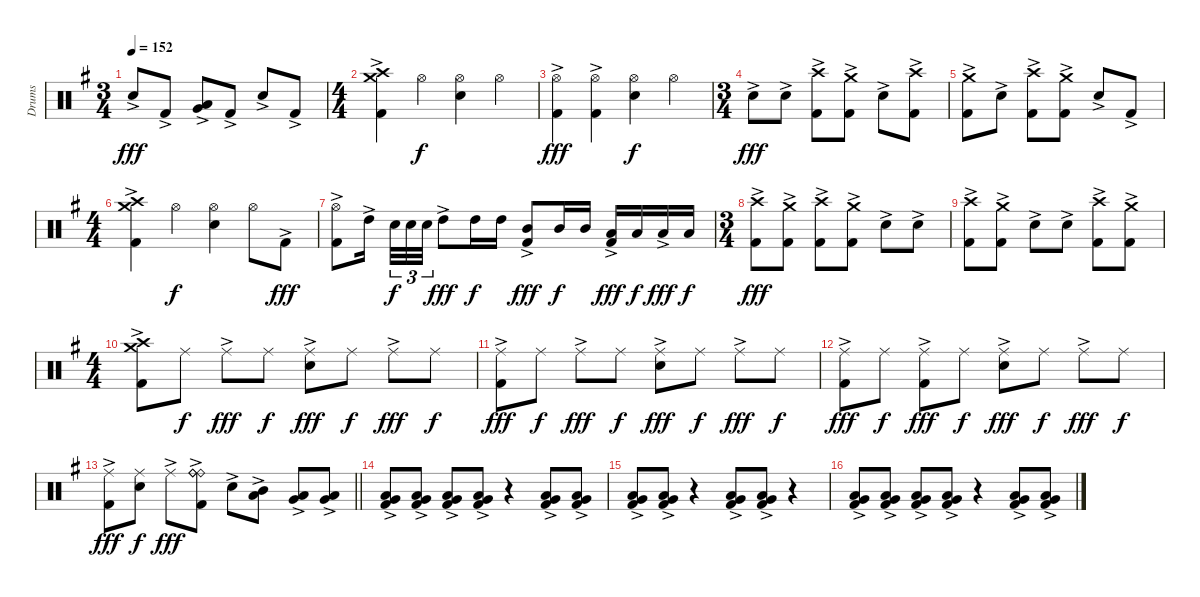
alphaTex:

\track ("Drums" "Drums") {instrument percussion}
\staff {score}
\articulation defaults
\ts (3 4)
\tempo 152
\clef neutral
\ks eminor "Snare (hit) 2"{ac}.8{dy fff} "Kick (hit) 2"{ac}.8
("Low Tom (hit)"{ac} "Very Low Tom (hit)").8 "Kick (hit) 2"{ac}.8 "Snare (hit) 2"{ac}.8 "Kick (hit) 2"{ac}.8 |
\ts (4 4)
("Crash high (hit)" "Crash medium (hit)" "Kick (hit) 2"{ac}).4 "Hi-Hat (open)".4{dy f} ("Hi-Hat (open)" "Snare (hit) 2").4 "Hi-Hat (open)".4 |
("Hi-Hat (open)" "Kick (hit) 2"{ac}).4{dy fff} ("Hi-Hat (open)" "Kick (hit) 2"{ac}).4 ("Hi-Hat (open)" "Snare (hit) 2").4{dy f} "Hi-Hat (open)".4 |
\ts (3 4)
"Snare (hit) 2"{ac}.8{dy fff} "Snare (hit) 2"{ac}.8 ("Crash high (hit)" "Kick (hit) 2"{ac}).8 ("Crash medium (hit)" "Kick (hit) 2"{ac}).8 "Snare (hit) 2"{ac}.8 ("Crash high (hit)" "Kick (hit) 2"{ac}).8 |
("Crash medium (hit)" "Kick (hit) 2"{ac}).8 "Snare (hit) 2"{ac}.8 ("Crash high (hit)" "Kick (hit) 2"{ac}).8 ("Crash medium (hit)" "Kick (hit) 2"{ac}).8 "Snare (hit) 2"{ac}.8 "Kick (hit) 2"{ac}.8 |
\ts (4 4)
("Crash high (hit)" "Crash medium (hit)" "Kick (hit) 2"{ac}).4 "Hi-Hat (open)".4{dy f} ("Hi-Hat (open)" "Snare (hit) 2").4 "Hi-Hat (open)".8 "Kick (hit) 2"{ac}.8{dy fff} |
("Hi-Hat (open)" "Kick (hit) 2"{ac}).8 "High Tom (hit)"{ac}.16 "Snare (hit) 2".32{tu (3 2) dy f} "Snare (hit) 2".32{tu (3 2)} "Snare (hit) 2".32{tu (3 2)} "High Tom (hit)"{ac}.8{dy fff} "High Tom (hit)".16{dy f} "High Tom (hit)".16 ("Mid Tom (hit)" "Kick (hit) 2"{ac}).8{dy fff} "Mid Tom (hit)".16{dy f} "Mid Tom (hit)".16 ("Low Tom (hit)" "Kick (hit) 2"{ac}).16{dy fff} "Low Tom (hit)".16{dy f} "Low Tom (hit)"{ac}.16{dy fff} "Low Tom (hit)".16{dy f} |
\ts (3 4)
("Crash high (hit)" "Kick (hit) 2"{ac}).8{dy fff} ("Crash medium (hit)" "Kick (hit) 2"{ac}).8 ("Crash high (hit)" "Kick (hit) 2"{ac}).8 ("Crash medium (hit)" "Kick (hit) 2"{ac}).8 "Snare (hit) 2"{ac}.8 "Snare (hit) 2"{ac}.8 |
("Crash high (hit)" "Kick (hit) 2"{ac}).8 ("Crash medium (hit)" "Kick (hit) 2"{ac}).8 "Snare (hit) 2"{ac}.8 "Snare (hit) 2"{ac}.8 ("Crash high (hit)" "Kick (hit) 2"{ac}).8 ("Crash medium (hit)" "Kick (hit) 2"{ac}).8 |
\ts (4 4)
("Crash high (hit)" "Crash medium (hit)" "Kick (hit) 2"{ac}).8 "Ride (middle)".8{dy f} "Ride (middle)"{ac}.8{dy fff} "Ride (middle)".8{dy f} ("Ride (middle)"{ac} "Snare (hit) 2").8{dy fff} "Ride (middle)".8{dy f} "Ride (middle)"{ac}.8{dy fff} "Ride (middle)".8{dy f} |
("Ride (middle)"{ac} "Kick (hit) 2"{ac}).8{dy fff} "Ride (middle)".8{dy f} "Ride (middle)"{ac}.8{dy fff} "Ride (middle)".8{dy f} ("Ride (middle)"{ac} "Snare (hit) 2").8{dy fff} "Ride (middle)".8{dy f} "Ride (middle)"{ac}.8{dy fff} "Ride (middle)".8{dy f} |
("Ride (middle)"{ac} "Kick (hit) 2"{ac}).8{dy fff} "Ride (middle)".8{dy f} ("Ride (middle)"{ac} "Kick (hit) 2"{ac}).8{dy fff} "Ride (middle)".8{dy f} ("Ride (middle)"{ac} "Snare (hit) 2").8{dy fff} "Ride (middle)".8{dy f} "Ride (middle)"{ac}.8{dy fff} "Ride (middle)".8{dy f} |
\barLineRight lightlight
("Ride (middle)"{ac} "Kick (hit) 2"{ac}).8{dy fff} ("Ride (middle)" "Snare (hit) 2").8{dy f} "Ride (middle)"{ac}.8{dy fff} ("Ride (bell)"{ac} "Ride (bell)"{ac} "Ride (bell)"{ac} "Kick (hit) 2"{ac}).8 "Snare (hit) 2"{ac}.8 ("Mid Tom (hit)"{ac} "Low Tom (hit)"{ac}).8 ("Low Tom (hit)"{ac} "Very Low Tom (hit)"{ac}).8 ("Very Low Tom (hit)"{ac} "Low Floor Tom (hit)"{ac}).8 |
("Very Low Tom (hit)" "Low Floor Tom (hit)" "Kick (hit) 2"{ac}).8 ("Very Low Tom (hit)" "Low Floor Tom (hit)" "Kick (hit) 2"{ac}).8 ("Very Low Tom (hit)" "Low Floor Tom (hit)" "Kick (hit) 2"{ac}).8 ("Very Low Tom (hit)" "Low Floor Tom (hit)" "Kick (hit) 2"{ac}).8 r.4 ("Very Low Tom (hit)" "Low Floor Tom (hit)" "Kick (hit) 2"{ac}).8 ("Very Low Tom (hit)" "Low Floor Tom (hit)" "Kick (hit) 2"{ac}).8 |
("Very Low Tom (hit)" "Low Floor Tom (hit)" "Kick (hit) 2"{ac}).8 ("Very Low Tom (hit)" "Low Floor Tom (hit)" "Kick (hit) 2"{ac}).8 r.4 ("Very Low Tom (hit)" "Low Floor Tom (hit)" "Kick (hit) 2"{ac}).8 ("Very Low Tom (hit)" "Low Floor Tom (hit)" "Kick (hit) 2"{ac}).8 r.4 |
("Very Low Tom (hit)" "Low Floor Tom (hit)" "Kick (hit) 2"{ac}).8 ("Very Low Tom (hit)" "Low Floor Tom (hit)" "Kick (hit) 2"{ac}).8 ("Very Low Tom (hit)" "Low Floor Tom (hit)" "Kick (hit) 2"{ac}).8 ("Very Low Tom (hit)" "Low Floor Tom (hit)" "Kick (hit) 2"{ac}).8 r.4 ("Very Low Tom (hit)" "Low Floor Tom (hit)" "Kick (hit) 2"{ac}).8 ("Very Low Tom (hit)" "Low Floor Tom (hit)" "Kick (hit) 2"{ac}).8
